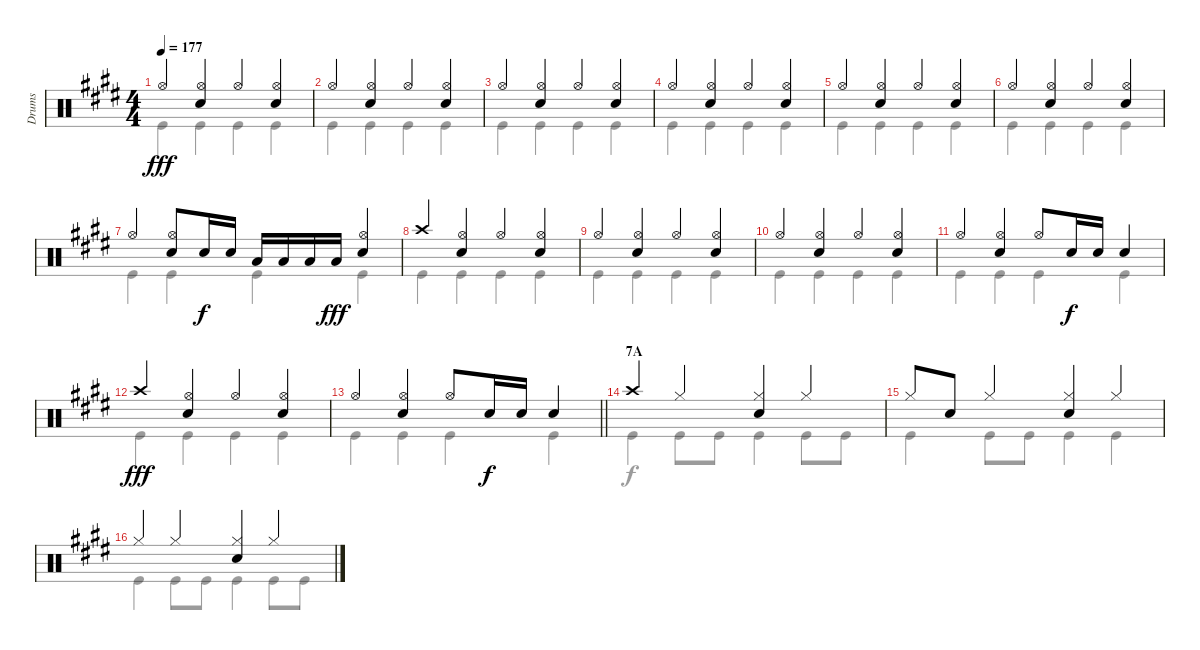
\track ("Drums" "Drums") {instrument percussion}
\staff {score}
\articulation defaults
\voice
\ts (4 4)
\tempo 177
\clef neutral
\ks e "Hi-Hat (open)".4{dy fff}
("Hi-Hat (open)" "Snare (hit) 2").4 "Hi-Hat (open)".4 ("Hi-Hat (open)" "Snare (hit) 2").4 |
"Hi-Hat (open)".4 ("Hi-Hat (open)" "Snare (hit) 2").4 "Hi-Hat (open)".4 ("Hi-Hat (open)" "Snare (hit) 2").4 |
"Hi-Hat (open)".4 ("Hi-Hat (open)" "Snare (hit) 2").4 "Hi-Hat (open)".4 ("Hi-Hat (open)" "Snare (hit) 2").4 |
"Hi-Hat (open)".4 ("Hi-Hat (open)" "Snare (hit) 2").4 "Hi-Hat (open)".4 ("Hi-Hat (open)" "Snare (hit) 2").4 |
"Hi-Hat (open)".4 ("Hi-Hat (open)" "Snare (hit) 2").4 "Hi-Hat (open)".4 ("Hi-Hat (open)" "Snare (hit) 2").4 |
"Hi-Hat (open)".4 ("Hi-Hat (open)" "Snare (hit) 2").4 "Hi-Hat (open)".4 ("Hi-Hat (open)" "Snare (hit) 2").4 |
"Hi-Hat (open)".4 ("Hi-Hat (open)" "Snare (hit) 2").8 "Snare (hit) 2".16{dy f} "Snare (hit) 2".16 "Low Tom (hit)".16 "Low Tom (hit)".16 "Low Tom (hit)".16 "Low Tom (hit)".16{dy fff} ("Hi-Hat (open)" "Snare (hit) 2").4 |
"Crash high (hit)".4 ("Hi-Hat (open)" "Snare (hit) 2").4 "Hi-Hat (open)".4 ("Hi-Hat (open)" "Snare (hit) 2").4 |
"Hi-Hat (open)".4 ("Hi-Hat (open)" "Snare (hit) 2").4 "Hi-Hat (open)".4 ("Hi-Hat (open)" "Snare (hit) 2").4 |
"Hi-Hat (open)".4 ("Hi-Hat (open)" "Snare (hit) 2").4 "Hi-Hat (open)".4 ("Hi-Hat (open)" "Snare (hit) 2").4 |
"Hi-Hat (open)".4 ("Hi-Hat (open)" "Snare (hit) 2").4 "Hi-Hat (open)".8 "Snare (hit) 2".16{dy f} "Snare (hit) 2".16 "Snare (hit) 2".4 |
"Crash high (hit)".4{dy fff} ("Hi-Hat (open)" "Snare (hit) 2").4 "Hi-Hat (open)".4 ("Hi-Hat (open)" "Snare (hit) 2").4 |
\barLineRight lightlight "Hi-Hat (open)".4
("Hi-Hat (open)" "Snare (hit) 2").4 "Hi-Hat (open)".8 "Snare (hit) 2".16{dy f} "Snare (hit) 2".16 "Snare (hit) 2".4 |
\section ("" "7A")
"Crash high (hit)".4 "Hi-Hat (closed)".4 ("Hi-Hat (closed)" "Snare (hit) 2").4 "Hi-Hat (closed)".4 |
"Hi-Hat (closed)".8 "Snare (hit) 2".8 "Hi-Hat (closed)".4 ("Hi-Hat (closed)" "Snare (hit) 2").4 "Hi-Hat (closed)".4 |
"Hi-Hat (closed)".4 "Hi-Hat (closed)".4 ("Hi-Hat (closed)" "Snare (hit) 2").4 "Hi-Hat (closed)".4
\voice
\clef neutral
\ottava regular
\simile none
\ks e "Kick (hit)".4{dy fff} "Kick (hit)".4 "Kick (hit)".4 "Kick (hit)".4
|
"Kick (hit)".4 "Kick (hit)".4 "Kick (hit)".4 "Kick (hit)".4 |
"Kick (hit)".4 "Kick (hit)".4 "Kick (hit)".4 "Kick (hit)".4 |
"Kick (hit)".4 "Kick (hit)".4 "Kick (hit)".4 "Kick (hit)".4 |
"Kick (hit)".4 "Kick (hit)".4 "Kick (hit)".4 "Kick (hit)".4 |
"Kick (hit)".4 "Kick (hit)".4 "Kick (hit)".4 "Kick (hit)".4 |
"Kick (hit)".4 "Kick (hit)".4 "Kick (hit)".4 "Kick (hit)".4 |
"Kick (hit)".4 "Kick (hit)".4 "Kick (hit)".4 "Kick (hit)".4 |
"Kick (hit)".4 "Kick (hit)".4 "Kick (hit)".4 "Kick (hit)".4 |
"Kick (hit)".4 "Kick (hit)".4 "Kick (hit)".4 "Kick (hit)".4 |
"Kick (hit)".4 "Kick (hit)".4 "Kick (hit)".4 "Kick (hit)".4 |
"Kick (hit)".4 "Kick (hit)".4 "Kick (hit)".4 "Kick (hit)".4 |
\barLineRight lightlight "Kick (hit)".4 "Kick (hit)".4 "Kick (hit)".4 "Kick (hit)".4
|
"Kick (hit)".4{dy f} "Kick (hit)".8 "Kick (hit)".8 "Kick (hit)".4 "Kick (hit)".8 "Kick (hit)".8 |
"Kick (hit)".4 "Kick (hit)".8 "Kick (hit)".8 "Kick (hit)".4 "Kick (hit)".4 |
"Kick (hit)".4 "Kick (hit)".8 "Kick (hit)".8 "Kick (hit)".4 "Kick (hit)".8 "Kick (hit)".8
